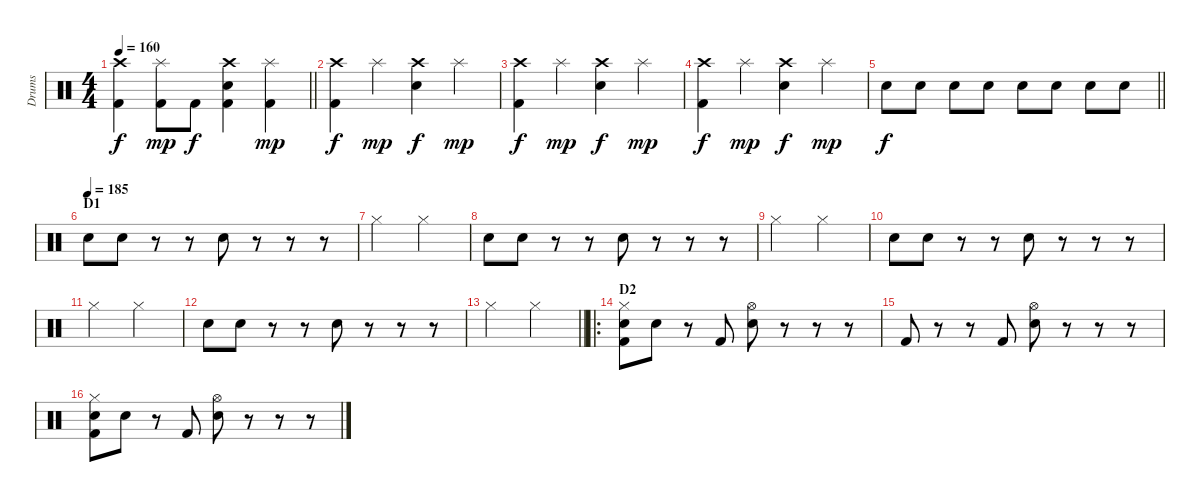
\track ("Drums" "Drums") {instrument percussion}
\staff {score}
\articulation defaults
\ts (4 4)
\tempo 160
\clef neutral
\barLineRight lightlight
\ks c
("Crash high (hit)" "Kick (hit) 2").4{dy f} ("Splash (hit)" "Kick (hit) 2").8{dy mp} "Kick (hit) 2".8{dy f} ("Crash high (hit)" "Snare (hit) 2" "Kick (hit) 2").4 ("Splash (hit)" "Kick (hit) 2").4{dy mp} |
("Crash high (hit)" "Kick (hit) 2").4{dy f} "Splash (hit)".4{dy mp} ("Crash high (hit)" "Snare (hit) 2").4{dy f} "Splash (hit)".4{dy mp} |
("Crash high (hit)" "Kick (hit) 2").4{dy f} "Splash (hit)".4{dy mp} ("Crash high (hit)" "Snare (hit) 2").4{dy f} "Splash (hit)".4{dy mp} |
("Crash high (hit)" "Kick (hit) 2").4{dy f} "Splash (hit)".4{dy mp} ("Crash high (hit)" "Snare (hit) 2").4{dy f} "Splash (hit)".4{dy mp} |
\barLineRight lightlight "Snare (hit) 2".8{dy f} "Snare (hit) 2".8 "Snare (hit) 2".8 "Snare (hit) 2".8 "Snare (hit) 2".8 "Snare (hit) 2".8 "Snare (hit) 2".8 "Snare (hit) 2".8
|
\section ("" "D1")
\tempo (185)
"Snare (hit) 2".8 "Snare (hit) 2".8 r.8 r.8 "Snare (hit) 2".8 r.8 r.8 r.8 |
"Hi-Hat (closed)".2 "Hi-Hat (closed)".2 |
"Snare (hit) 2".8 "Snare (hit) 2".8 r.8 r.8 "Snare (hit) 2".8 r.8 r.8 r.8 |
"Hi-Hat (closed)".2 "Hi-Hat (closed)".2 |
"Snare (hit) 2".8 "Snare (hit) 2".8 r.8 r.8 "Snare (hit) 2".8 r.8 r.8 r.8 |
"Hi-Hat (closed)".2 "Hi-Hat (closed)".2 |
"Snare (hit) 2".8 "Snare (hit) 2".8 r.8 r.8 "Snare (hit) 2".8 r.8 r.8 r.8 |
\barLineRight lightlight "Hi-Hat (closed)".2 "Hi-Hat (closed)".2
|
\ro
\section ("" "D2")
("Hi-Hat (closed)" "Snare (hit) 2" "Kick (hit) 2").8 "Snare (hit) 2".8 r.8 "Kick (hit) 2".8 ("Hi-Hat (open)" "Snare (hit) 2").8 r.8 r.8 r.8 |
"Kick (hit) 2".8 r.8 r.8 "Kick (hit) 2".8 ("Hi-Hat (open)" "Snare (hit) 2").8 r.8 r.8 r.8 |
("Hi-Hat (closed)" "Snare (hit) 2" "Kick (hit) 2").8 "Snare (hit) 2".8 r.8 "Kick (hit) 2".8 ("Hi-Hat (open)" "Snare (hit) 2").8 r.8 r.8 r.8
